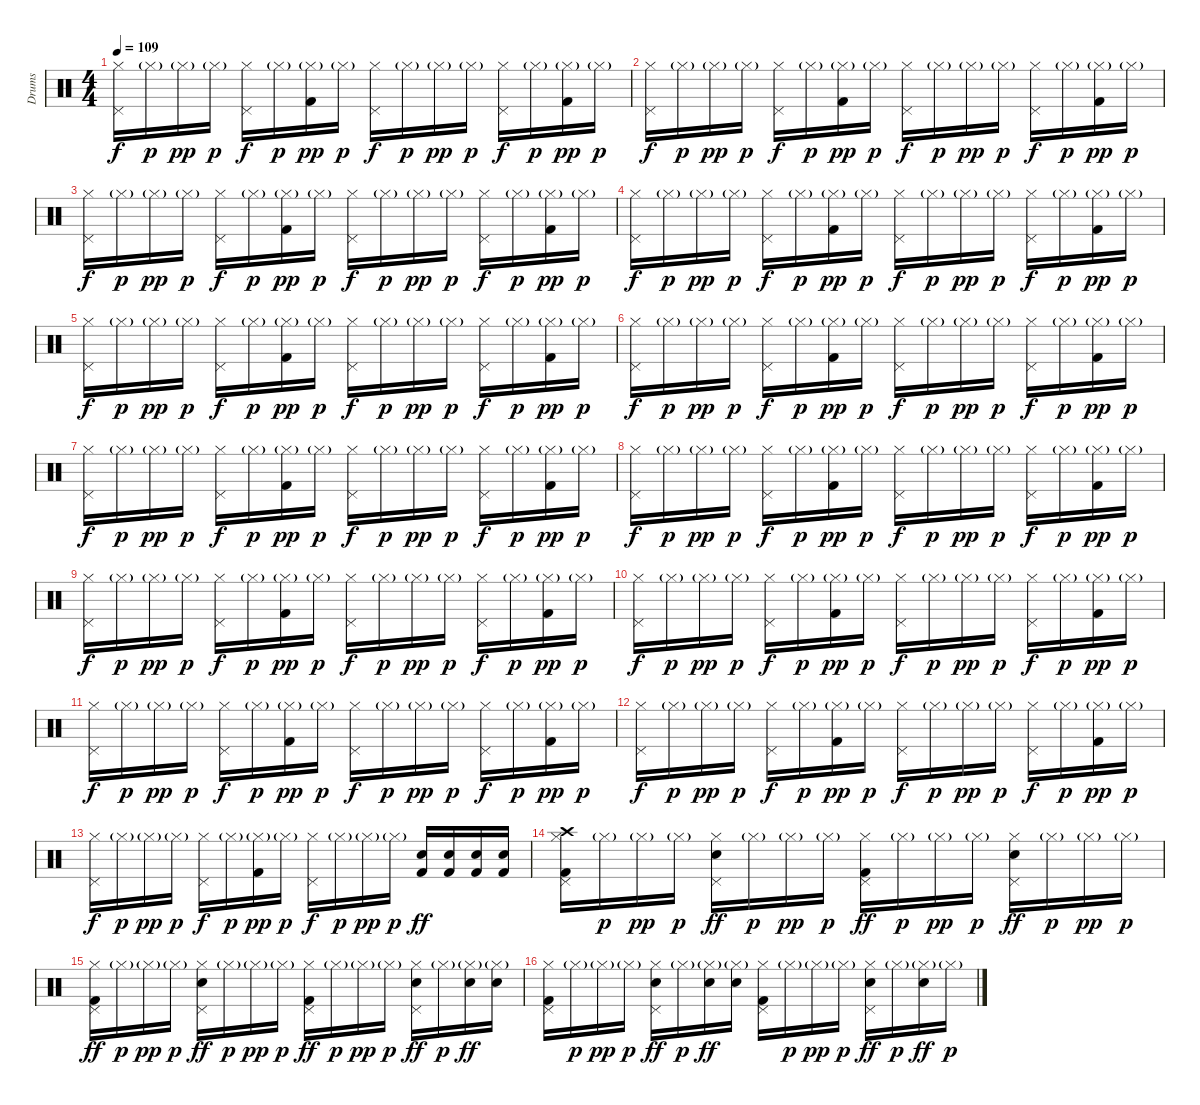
\track ("Drums" "Drums") {instrument percussion}
\staff {score}
\articulation defaults
\ts (4 4)
\tempo 109
\clef neutral
\ks c
("Hi-Hat (closed)" "Pedal Hi-Hat (hit)").16{dy f} "Hi-Hat (closed)"{g}.16{dy p} "Hi-Hat (closed)"{g}.16{dy pp} "Hi-Hat (closed)"{g}.16{dy p} ("Hi-Hat (closed)" "Pedal Hi-Hat (hit)").16{dy f} "Hi-Hat (closed)"{g}.16{dy p} ("Hi-Hat (closed)"{g} "Kick (hit) 2").16{dy pp} "Hi-Hat (closed)"{g}.16{dy p} ("Hi-Hat (closed)" "Pedal Hi-Hat (hit)").16{dy f} "Hi-Hat (closed)"{g}.16{dy p} "Hi-Hat (closed)"{g}.16{dy pp} "Hi-Hat (closed)"{g}.16{dy p} ("Hi-Hat (closed)" "Pedal Hi-Hat (hit)").16{dy f} "Hi-Hat (closed)"{g}.16{dy p} ("Hi-Hat (closed)"{g} "Kick (hit) 2").16{dy pp} "Hi-Hat (closed)"{g}.16{dy p} |
("Hi-Hat (closed)" "Pedal Hi-Hat (hit)").16{dy f} "Hi-Hat (closed)"{g}.16{dy p} "Hi-Hat (closed)"{g}.16{dy pp} "Hi-Hat (closed)"{g}.16{dy p} ("Hi-Hat (closed)" "Pedal Hi-Hat (hit)").16{dy f} "Hi-Hat (closed)"{g}.16{dy p} ("Hi-Hat (closed)"{g} "Kick (hit) 2").16{dy pp} "Hi-Hat (closed)"{g}.16{dy p} ("Hi-Hat (closed)" "Pedal Hi-Hat (hit)").16{dy f} "Hi-Hat (closed)"{g}.16{dy p} "Hi-Hat (closed)"{g}.16{dy pp} "Hi-Hat (closed)"{g}.16{dy p} ("Hi-Hat (closed)" "Pedal Hi-Hat (hit)").16{dy f} "Hi-Hat (closed)"{g}.16{dy p} ("Hi-Hat (closed)"{g} "Kick (hit) 2").16{dy pp} "Hi-Hat (closed)"{g}.16{dy p} |
("Hi-Hat (closed)" "Pedal Hi-Hat (hit)").16{dy f} "Hi-Hat (closed)"{g}.16{dy p} "Hi-Hat (closed)"{g}.16{dy pp} "Hi-Hat (closed)"{g}.16{dy p} ("Hi-Hat (closed)" "Pedal Hi-Hat (hit)").16{dy f} "Hi-Hat (closed)"{g}.16{dy p} ("Hi-Hat (closed)"{g} "Kick (hit) 2").16{dy pp} "Hi-Hat (closed)"{g}.16{dy p} ("Hi-Hat (closed)" "Pedal Hi-Hat (hit)").16{dy f} "Hi-Hat (closed)"{g}.16{dy p} "Hi-Hat (closed)"{g}.16{dy pp} "Hi-Hat (closed)"{g}.16{dy p} ("Hi-Hat (closed)" "Pedal Hi-Hat (hit)").16{dy f} "Hi-Hat (closed)"{g}.16{dy p} ("Hi-Hat (closed)"{g} "Kick (hit) 2").16{dy pp} "Hi-Hat (closed)"{g}.16{dy p} |
("Hi-Hat (closed)" "Pedal Hi-Hat (hit)").16{dy f} "Hi-Hat (closed)"{g}.16{dy p} "Hi-Hat (closed)"{g}.16{dy pp} "Hi-Hat (closed)"{g}.16{dy p} ("Hi-Hat (closed)" "Pedal Hi-Hat (hit)").16{dy f} "Hi-Hat (closed)"{g}.16{dy p} ("Hi-Hat (closed)"{g} "Kick (hit) 2").16{dy pp} "Hi-Hat (closed)"{g}.16{dy p} ("Hi-Hat (closed)" "Pedal Hi-Hat (hit)").16{dy f} "Hi-Hat (closed)"{g}.16{dy p} "Hi-Hat (closed)"{g}.16{dy pp} "Hi-Hat (closed)"{g}.16{dy p} ("Hi-Hat (closed)" "Pedal Hi-Hat (hit)").16{dy f} "Hi-Hat (closed)"{g}.16{dy p} ("Hi-Hat (closed)"{g} "Kick (hit) 2").16{dy pp} "Hi-Hat (closed)"{g}.16{dy p} |
("Hi-Hat (closed)" "Pedal Hi-Hat (hit)").16{dy f} "Hi-Hat (closed)"{g}.16{dy p} "Hi-Hat (closed)"{g}.16{dy pp} "Hi-Hat (closed)"{g}.16{dy p} ("Hi-Hat (closed)" "Pedal Hi-Hat (hit)").16{dy f} "Hi-Hat (closed)"{g}.16{dy p} ("Hi-Hat (closed)"{g} "Kick (hit) 2").16{dy pp} "Hi-Hat (closed)"{g}.16{dy p} ("Hi-Hat (closed)" "Pedal Hi-Hat (hit)").16{dy f} "Hi-Hat (closed)"{g}.16{dy p} "Hi-Hat (closed)"{g}.16{dy pp} "Hi-Hat (closed)"{g}.16{dy p} ("Hi-Hat (closed)" "Pedal Hi-Hat (hit)").16{dy f} "Hi-Hat (closed)"{g}.16{dy p} ("Hi-Hat (closed)"{g} "Kick (hit) 2").16{dy pp} "Hi-Hat (closed)"{g}.16{dy p} |
("Hi-Hat (closed)" "Pedal Hi-Hat (hit)").16{dy f} "Hi-Hat (closed)"{g}.16{dy p} "Hi-Hat (closed)"{g}.16{dy pp} "Hi-Hat (closed)"{g}.16{dy p} ("Hi-Hat (closed)" "Pedal Hi-Hat (hit)").16{dy f} "Hi-Hat (closed)"{g}.16{dy p} ("Hi-Hat (closed)"{g} "Kick (hit) 2").16{dy pp} "Hi-Hat (closed)"{g}.16{dy p} ("Hi-Hat (closed)" "Pedal Hi-Hat (hit)").16{dy f} "Hi-Hat (closed)"{g}.16{dy p} "Hi-Hat (closed)"{g}.16{dy pp} "Hi-Hat (closed)"{g}.16{dy p} ("Hi-Hat (closed)" "Pedal Hi-Hat (hit)").16{dy f} "Hi-Hat (closed)"{g}.16{dy p} ("Hi-Hat (closed)"{g} "Kick (hit) 2").16{dy pp} "Hi-Hat (closed)"{g}.16{dy p} |
("Hi-Hat (closed)" "Pedal Hi-Hat (hit)").16{dy f} "Hi-Hat (closed)"{g}.16{dy p} "Hi-Hat (closed)"{g}.16{dy pp} "Hi-Hat (closed)"{g}.16{dy p} ("Hi-Hat (closed)" "Pedal Hi-Hat (hit)").16{dy f} "Hi-Hat (closed)"{g}.16{dy p} ("Hi-Hat (closed)"{g} "Kick (hit) 2").16{dy pp} "Hi-Hat (closed)"{g}.16{dy p} ("Hi-Hat (closed)" "Pedal Hi-Hat (hit)").16{dy f} "Hi-Hat (closed)"{g}.16{dy p} "Hi-Hat (closed)"{g}.16{dy pp} "Hi-Hat (closed)"{g}.16{dy p} ("Hi-Hat (closed)" "Pedal Hi-Hat (hit)").16{dy f} "Hi-Hat (closed)"{g}.16{dy p} ("Hi-Hat (closed)"{g} "Kick (hit) 2").16{dy pp} "Hi-Hat (closed)"{g}.16{dy p} |
("Hi-Hat (closed)" "Pedal Hi-Hat (hit)").16{dy f} "Hi-Hat (closed)"{g}.16{dy p} "Hi-Hat (closed)"{g}.16{dy pp} "Hi-Hat (closed)"{g}.16{dy p} ("Hi-Hat (closed)" "Pedal Hi-Hat (hit)").16{dy f} "Hi-Hat (closed)"{g}.16{dy p} ("Hi-Hat (closed)"{g} "Kick (hit) 2").16{dy pp} "Hi-Hat (closed)"{g}.16{dy p} ("Hi-Hat (closed)" "Pedal Hi-Hat (hit)").16{dy f} "Hi-Hat (closed)"{g}.16{dy p} "Hi-Hat (closed)"{g}.16{dy pp} "Hi-Hat (closed)"{g}.16{dy p} ("Hi-Hat (closed)" "Pedal Hi-Hat (hit)").16{dy f} "Hi-Hat (closed)"{g}.16{dy p} ("Hi-Hat (closed)"{g} "Kick (hit) 2").16{dy pp} "Hi-Hat (closed)"{g}.16{dy p} |
("Hi-Hat (closed)" "Pedal Hi-Hat (hit)").16{dy f} "Hi-Hat (closed)"{g}.16{dy p} "Hi-Hat (closed)"{g}.16{dy pp} "Hi-Hat (closed)"{g}.16{dy p} ("Hi-Hat (closed)" "Pedal Hi-Hat (hit)").16{dy f} "Hi-Hat (closed)"{g}.16{dy p} ("Hi-Hat (closed)"{g} "Kick (hit) 2").16{dy pp} "Hi-Hat (closed)"{g}.16{dy p} ("Hi-Hat (closed)" "Pedal Hi-Hat (hit)").16{dy f} "Hi-Hat (closed)"{g}.16{dy p} "Hi-Hat (closed)"{g}.16{dy pp} "Hi-Hat (closed)"{g}.16{dy p} ("Hi-Hat (closed)" "Pedal Hi-Hat (hit)").16{dy f} "Hi-Hat (closed)"{g}.16{dy p} ("Hi-Hat (closed)"{g} "Kick (hit) 2").16{dy pp} "Hi-Hat (closed)"{g}.16{dy p} |
("Hi-Hat (closed)" "Pedal Hi-Hat (hit)").16{dy f} "Hi-Hat (closed)"{g}.16{dy p} "Hi-Hat (closed)"{g}.16{dy pp} "Hi-Hat (closed)"{g}.16{dy p} ("Hi-Hat (closed)" "Pedal Hi-Hat (hit)").16{dy f} "Hi-Hat (closed)"{g}.16{dy p} ("Hi-Hat (closed)"{g} "Kick (hit) 2").16{dy pp} "Hi-Hat (closed)"{g}.16{dy p} ("Hi-Hat (closed)" "Pedal Hi-Hat (hit)").16{dy f} "Hi-Hat (closed)"{g}.16{dy p} "Hi-Hat (closed)"{g}.16{dy pp} "Hi-Hat (closed)"{g}.16{dy p} ("Hi-Hat (closed)" "Pedal Hi-Hat (hit)").16{dy f} "Hi-Hat (closed)"{g}.16{dy p} ("Hi-Hat (closed)"{g} "Kick (hit) 2").16{dy pp} "Hi-Hat (closed)"{g}.16{dy p} |
("Hi-Hat (closed)" "Pedal Hi-Hat (hit)").16{dy f} "Hi-Hat (closed)"{g}.16{dy p} "Hi-Hat (closed)"{g}.16{dy pp} "Hi-Hat (closed)"{g}.16{dy p} ("Hi-Hat (closed)" "Pedal Hi-Hat (hit)").16{dy f} "Hi-Hat (closed)"{g}.16{dy p} ("Hi-Hat (closed)"{g} "Kick (hit) 2").16{dy pp} "Hi-Hat (closed)"{g}.16{dy p} ("Hi-Hat (closed)" "Pedal Hi-Hat (hit)").16{dy f} "Hi-Hat (closed)"{g}.16{dy p} "Hi-Hat (closed)"{g}.16{dy pp} "Hi-Hat (closed)"{g}.16{dy p} ("Hi-Hat (closed)" "Pedal Hi-Hat (hit)").16{dy f} "Hi-Hat (closed)"{g}.16{dy p} ("Hi-Hat (closed)"{g} "Kick (hit) 2").16{dy pp} "Hi-Hat (closed)"{g}.16{dy p} |
("Hi-Hat (closed)" "Pedal Hi-Hat (hit)").16{dy f} "Hi-Hat (closed)"{g}.16{dy p} "Hi-Hat (closed)"{g}.16{dy pp} "Hi-Hat (closed)"{g}.16{dy p} ("Hi-Hat (closed)" "Pedal Hi-Hat (hit)").16{dy f} "Hi-Hat (closed)"{g}.16{dy p} ("Hi-Hat (closed)"{g} "Kick (hit) 2").16{dy pp} "Hi-Hat (closed)"{g}.16{dy p} ("Hi-Hat (closed)" "Pedal Hi-Hat (hit)").16{dy f} "Hi-Hat (closed)"{g}.16{dy p} "Hi-Hat (closed)"{g}.16{dy pp} "Hi-Hat (closed)"{g}.16{dy p} ("Hi-Hat (closed)" "Pedal Hi-Hat (hit)").16{dy f} "Hi-Hat (closed)"{g}.16{dy p} ("Hi-Hat (closed)"{g} "Kick (hit) 2").16{dy pp} "Hi-Hat (closed)"{g}.16{dy p} |
("Hi-Hat (closed)" "Pedal Hi-Hat (hit)").16{dy f} "Hi-Hat (closed)"{g}.16{dy p} "Hi-Hat (closed)"{g}.16{dy pp} "Hi-Hat (closed)"{g}.16{dy p} ("Hi-Hat (closed)" "Pedal Hi-Hat (hit)").16{dy f} "Hi-Hat (closed)"{g}.16{dy p} ("Hi-Hat (closed)"{g} "Kick (hit) 2").16{dy pp} "Hi-Hat (closed)"{g}.16{dy p} ("Hi-Hat (closed)" "Pedal Hi-Hat (hit)").16{dy f} "Hi-Hat (closed)"{g}.16{dy p} "Hi-Hat (closed)"{g}.16{dy pp} "Hi-Hat (closed)"{g}.16{dy p} ("Kick (hit) 2" "Electric Snare (hit)").16{dy ff} ("Kick (hit) 2" "Electric Snare (hit)").16 ("Kick (hit) 2" "Electric Snare (hit)").16 ("Kick (hit) 2" "Electric Snare (hit)").16 |
("Hi-Hat (closed)" "Pedal Hi-Hat (hit)" "Kick (hit) 2" "Crash high (hit)").16 "Hi-Hat (closed)"{g}.16{dy p} "Hi-Hat (closed)"{g}.16{dy pp} "Hi-Hat (closed)"{g}.16{dy p} ("Hi-Hat (closed)" "Pedal Hi-Hat (hit)" "Electric Snare (hit)").16{dy ff} "Hi-Hat (closed)"{g}.16{dy p} "Hi-Hat (closed)"{g}.16{dy pp} "Hi-Hat (closed)"{g}.16{dy p} ("Hi-Hat (closed)" "Pedal Hi-Hat (hit)" "Kick (hit) 2").16{dy ff} "Hi-Hat (closed)"{g}.16{dy p} "Hi-Hat (closed)"{g}.16{dy pp} "Hi-Hat (closed)"{g}.16{dy p} ("Hi-Hat (closed)" "Pedal Hi-Hat (hit)" "Electric Snare (hit)").16{dy ff} "Hi-Hat (closed)"{g}.16{dy p} "Hi-Hat (closed)"{g}.16{dy pp} "Hi-Hat (closed)"{g}.16{dy p} |
("Hi-Hat (closed)" "Pedal Hi-Hat (hit)" "Kick (hit) 2").16{dy ff} "Hi-Hat (closed)"{g}.16{dy p} "Hi-Hat (closed)"{g}.16{dy pp} "Hi-Hat (closed)"{g}.16{dy p} ("Hi-Hat (closed)" "Pedal Hi-Hat (hit)" "Electric Snare (hit)").16{dy ff} "Hi-Hat (closed)"{g}.16{dy p} "Hi-Hat (closed)"{g}.16{dy pp} "Hi-Hat (closed)"{g}.16{dy p} ("Hi-Hat (closed)" "Pedal Hi-Hat (hit)" "Kick (hit) 2").16{dy ff} "Hi-Hat (closed)"{g}.16{dy p} "Hi-Hat (closed)"{g}.16{dy pp} "Hi-Hat (closed)"{g}.16{dy p} ("Hi-Hat (closed)" "Pedal Hi-Hat (hit)" "Electric Snare (hit)").16{dy ff} "Hi-Hat (closed)"{g}.16{dy p} ("Hi-Hat (closed)"{g} "Electric Snare (hit)").16{dy ff} ("Hi-Hat (closed)"{g} "Electric Snare (hit)").16 |
("Hi-Hat (closed)" "Pedal Hi-Hat (hit)" "Kick (hit) 2").16 "Hi-Hat (closed)"{g}.16{dy p} "Hi-Hat (closed)"{g}.16{dy pp} "Hi-Hat (closed)"{g}.16{dy p} ("Hi-Hat (closed)" "Pedal Hi-Hat (hit)" "Electric Snare (hit)").16{dy ff} "Hi-Hat (closed)"{g}.16{dy p} ("Hi-Hat (closed)"{g} "Electric Snare (hit)").16{dy ff} ("Hi-Hat (closed)"{g} "Electric Snare (hit)").16 ("Hi-Hat (closed)" "Pedal Hi-Hat (hit)" "Kick (hit) 2").16 "Hi-Hat (closed)"{g}.16{dy p} "Hi-Hat (closed)"{g}.16{dy pp} "Hi-Hat (closed)"{g}.16{dy p} ("Hi-Hat (closed)" "Pedal Hi-Hat (hit)" "Electric Snare (hit)").16{dy ff} "Hi-Hat (closed)"{g}.16{dy p} ("Hi-Hat (closed)"{g} "Electric Snare (hit)").16{dy ff} "Hi-Hat (closed)"{g}.16{dy p}
